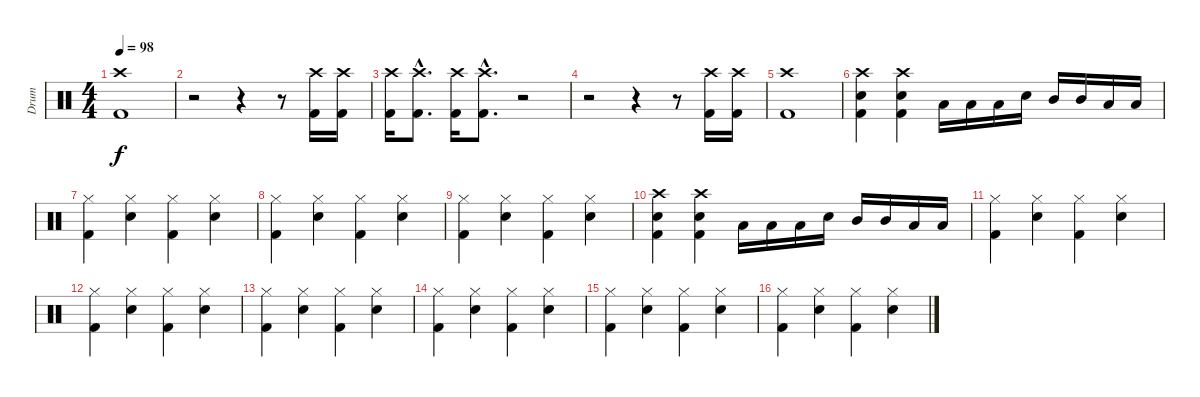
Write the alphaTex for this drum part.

\track ("Drum" "Drum") {instrument percussion}
\staff {score}
\articulation defaults
\ts (4 4)
\tempo 98
\clef neutral
\ks c
("Crash high (hit)" "Kick (hit) 2").1{dy f} |
r.2 r.4 r.8 ("Crash high (hit)" "Kick (hit) 2").16 ("Crash high (hit)" "Kick (hit) 2").16 |
("Crash high (hit)" "Kick (hit) 2").16 ("Crash high (hit)"{hac} "Kick (hit) 2"{hac}).8{d} ("Crash high (hit)" "Kick (hit) 2").16 ("Crash high (hit)"{hac} "Kick (hit) 2"{hac}).8{d} r.2 |
r.2 r.4 r.8 ("Crash high (hit)" "Kick (hit) 2").16 ("Crash high (hit)" "Kick (hit) 2").16 |
("Crash high (hit)" "Kick (hit) 2").1 |
("Crash high (hit)" "Snare (hit) 2" "Kick (hit) 2").4 ("Crash high (hit)" "Snare (hit) 2" "Kick (hit) 2").4 "Low Tom (hit)".16 "Low Floor Tom (hit)".16 "Low Tom (hit)".16 "Snare (hit) 2".16 "Mid Tom (hit)".16 "Mid Tom (hit)".16 "Low Tom (hit)".16 "Low Floor Tom (hit)".16 |
("Hi-Hat (closed)" "Kick (hit) 2").4 ("Hi-Hat (closed)" "Snare (hit) 2").4 ("Hi-Hat (closed)" "Kick (hit) 2").4 ("Hi-Hat (closed)" "Snare (hit) 2").4 |
("Hi-Hat (closed)" "Kick (hit) 2").4 ("Hi-Hat (closed)" "Snare (hit) 2").4 ("Hi-Hat (closed)" "Kick (hit) 2").4 ("Hi-Hat (closed)" "Snare (hit) 2").4 |
("Hi-Hat (closed)" "Kick (hit) 2").4 ("Hi-Hat (closed)" "Snare (hit) 2").4 ("Hi-Hat (closed)" "Kick (hit) 2").4 ("Hi-Hat (closed)" "Snare (hit) 2").4 |
("Crash high (hit)" "Snare (hit) 2" "Kick (hit) 2").4 ("Crash high (hit)" "Snare (hit) 2" "Kick (hit) 2").4 "Low Tom (hit)".16 "Low Floor Tom (hit)".16 "Low Tom (hit)".16 "Snare (hit) 2".16 "Mid Tom (hit)".16 "Mid Tom (hit)".16 "Low Tom (hit)".16 "Low Floor Tom (hit)".16 |
("Hi-Hat (closed)" "Kick (hit) 2").4 ("Hi-Hat (closed)" "Snare (hit) 2").4 ("Hi-Hat (closed)" "Kick (hit) 2").4 ("Hi-Hat (closed)" "Snare (hit) 2").4 |
("Hi-Hat (closed)" "Kick (hit) 2").4 ("Hi-Hat (closed)" "Snare (hit) 2").4 ("Hi-Hat (closed)" "Kick (hit) 2").4 ("Hi-Hat (closed)" "Snare (hit) 2").4 |
("Hi-Hat (closed)" "Kick (hit) 2").4 ("Hi-Hat (closed)" "Snare (hit) 2").4 ("Hi-Hat (closed)" "Kick (hit) 2").4 ("Hi-Hat (closed)" "Snare (hit) 2").4 |
("Hi-Hat (closed)" "Kick (hit) 2").4 ("Hi-Hat (closed)" "Snare (hit) 2").4 ("Hi-Hat (closed)" "Kick (hit) 2").4 ("Hi-Hat (closed)" "Snare (hit) 2").4 |
("Hi-Hat (closed)" "Kick (hit) 2").4 ("Hi-Hat (closed)" "Snare (hit) 2").4 ("Hi-Hat (closed)" "Kick (hit) 2").4 ("Hi-Hat (closed)" "Snare (hit) 2").4 |
("Hi-Hat (closed)" "Kick (hit) 2").4 ("Hi-Hat (closed)" "Snare (hit) 2").4 ("Hi-Hat (closed)" "Kick (hit) 2").4 ("Hi-Hat (closed)" "Snare (hit) 2").4
